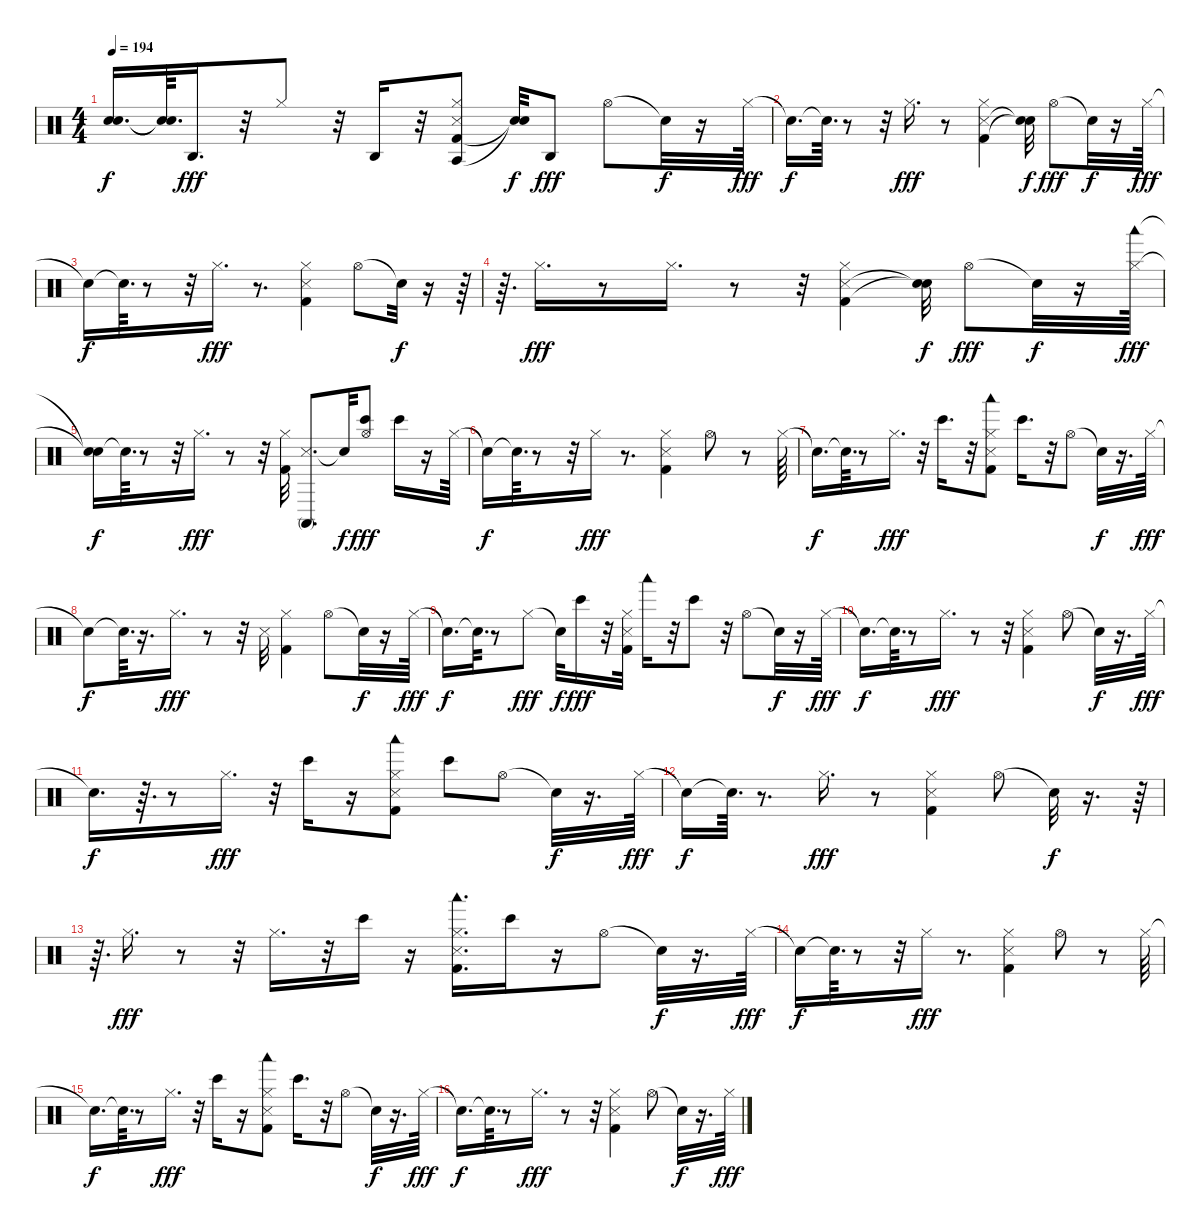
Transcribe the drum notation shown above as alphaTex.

\track "" {instrument percussion}
\staff {score}
\articulation defaults
\ts (4 4)
\tempo 194
\clef neutral
\ks c
("Snare (hit)"{t} "Snare (hit)"{t}).16{d dy f} ("Snare (hit)"{t} "Snare (hit)"{t}).64{d} "Agogo high (hit)".16{d dy fff} r.32 "Hi-Hat (closed)".8 r.32 "Agogo high (hit)".16 r.32 ("Kick (hit) 2" "Agogo tow (hit)" "Hi-Hat (closed)" "Snare (side stick) 3").8 ("Snare (hit)"{t} "Snare (hit)"{t}).32{dy f} "Agogo high (hit)".8{dy fff} "Hi-Hat (open)".8 "Snare (hit)"{t}.32{dy f} r.16 "Hi-Hat (closed)".64{dy fff} |
"Snare (hit)"{t}.16{d dy f} "Snare (hit)"{t}.64{d} r.8 r.32 "Hi-Hat (closed)".16{d dy fff} r.8 ("Kick (hit) 2" "Snare (side stick) 3" "Hi-Hat (closed)").4 ("Snare (hit)"{t} "Snare (hit)"{t}).32{dy f} "Hi-Hat (open)".8{dy fff} "Snare (hit)"{t}.32{dy f} r.16 "Hi-Hat (closed)".64{dy fff} |
"Snare (hit)"{t}.16{dy f} "Snare (hit)"{t}.64{d} r.8 r.32 "Hi-Hat (closed)".16{d dy fff} r.8{d} ("Kick (hit) 2" "Snare (side stick) 3" "Hi-Hat (closed)").4 "Hi-Hat (open)".8 "Snare (hit)"{t}.32{dy f} r.16 r.64 |
r.64{d} "Hi-Hat (closed)".16{d dy fff} r.8 "Hi-Hat (closed)".16{d} r.8 r.32 ("Kick (hit) 2" "Snare (side stick) 3" "Hi-Hat (closed)").4 ("Snare (hit)"{t} "Snare (hit)"{t}).32{dy f} "Hi-Hat (open)".8{dy fff} "Snare (hit)"{t}.32{dy f} r.16 ("Hi-Hat (closed)" "Woodblock low (hit)").64{dy fff} |
("Snare (hit)"{t} "Snare (hit)"{t}).16{dy f} "Snare (hit)"{t}.64{d} r.8 r.32 "Hi-Hat (closed)".16{d dy fff} r.8 r.32 ("Kick (hit) 2" "Hi-Hat (closed)").32 ("Snare (side stick) 3" "Conga high (mute)").8{d} "Snare (hit)"{t}.32{dy f} ("Hi-Hat (open)" "Bongo High (hit)").8{dy fff} "Bongo High (hit)".16 r.16 "Hi-Hat (closed)".64 |
"Snare (hit)"{t}.16{dy f} "Snare (hit)"{t}.64{d} r.8 r.32 "Hi-Hat (closed)".16{dy fff} r.8{d} ("Snare (side stick) 3" "Kick (hit) 2" "Hi-Hat (closed)").4 "Hi-Hat (open)".8 r.8 "Hi-Hat (closed)".64 |
"Snare (hit)"{t}.16{d dy f} "Snare (hit)"{t}.64{d} r.8 "Hi-Hat (closed)".16{d dy fff} r.32 "Bongo High (hit)".16{d} r.32 ("Snare (side stick) 3" "Kick (hit) 2" "Hi-Hat (closed)" "Woodblock low (hit)").8 "Bongo High (hit)".16{d} r.32 "Hi-Hat (open)".8 "Snare (hit)"{t}.32{dy f} r.16{d} "Hi-Hat (closed)".64{dy fff} |
"Snare (hit)"{t}.8{dy f} "Snare (hit)"{t}.64{d} r.16{d} "Hi-Hat (closed)".16{d dy fff} r.8 r.32 "Snare (side stick) 3".32 ("Kick (hit) 2" "Hi-Hat (closed)").4 "Hi-Hat (open)".8 "Snare (hit)"{t}.32{dy f} r.16 "Hi-Hat (closed)".64{dy fff} |
"Snare (hit)"{t}.16{d dy f} "Snare (hit)"{t}.64{d} r.8 "Hi-Hat (closed)".8{dy fff} "Snare (hit)"{t}.32{dy f} "Bongo High (hit)".16{dy fff} r.32 ("Hi-Hat (closed)" "Snare (side stick) 3" "Kick (hit) 2").32 "Woodblock low (hit)".16 r.32 "Bongo High (hit)".8 r.32 "Hi-Hat (open)".8 "Snare (hit)"{t}.32{dy f} r.16 "Hi-Hat (closed)".64{dy fff} |
"Snare (hit)"{t}.16{d dy f} "Snare (hit)"{t}.64{d} r.8 "Hi-Hat (closed)".16{d dy fff} r.8 r.32 ("Snare (side stick) 3" "Kick (hit) 2" "Hi-Hat (closed)").4 "Hi-Hat (open)".8 "Snare (hit)"{t}.32{dy f} r.16{d} "Hi-Hat (closed)".64{dy fff} |
"Snare (hit)"{t}.16{d dy f} r.64{d} r.8 "Hi-Hat (closed)".16{d dy fff} r.32 "Bongo High (hit)".16 r.16 ("Snare (side stick) 3" "Kick (hit) 2" "Hi-Hat (closed)" "Woodblock low (hit)").8 "Bongo High (hit)".8 "Hi-Hat (open)".8 "Snare (hit)"{t}.32{dy f} r.16{d} "Hi-Hat (closed)".64{dy fff} |
"Snare (hit)"{t}.16{dy f} "Snare (hit)"{t}.64{d} r.8{d} "Hi-Hat (closed)".16{d dy fff} r.8 ("Kick (hit) 2" "Snare (side stick) 3" "Hi-Hat (closed)").4 "Hi-Hat (open)".8 "Snare (hit)"{t}.32{dy f} r.16{d} r.64 |
r.64{d} "Hi-Hat (closed)".16{d dy fff} r.8 r.32 "Hi-Hat (closed)".16{d} r.32 "Bongo High (hit)".16 r.16 ("Kick (hit) 2" "Hi-Hat (closed)" "Snare (side stick) 3" "Woodblock low (hit)").16{d} "Bongo High (hit)".16 r.16 "Hi-Hat (open)".8 "Snare (hit)"{t}.32{dy f} r.16{d} "Hi-Hat (closed)".64{dy fff} |
"Snare (hit)"{t}.16{dy f} "Snare (hit)"{t}.64{d} r.8 r.32 "Hi-Hat (closed)".16{dy fff} r.8{d} ("Kick (hit) 2" "Snare (side stick) 3" "Hi-Hat (closed)").4 "Hi-Hat (open)".8 r.8 "Hi-Hat (closed)".64 |
"Snare (hit)"{t}.16{d dy f} "Snare (hit)"{t}.64{d} r.8 "Hi-Hat (closed)".16{d dy fff} r.32 "Bongo High (hit)".16 r.16 ("Woodblock low (hit)" "Kick (hit) 2" "Snare (side stick) 3" "Hi-Hat (closed)").8 "Bongo High (hit)".16{d} r.32 "Hi-Hat (open)".8 "Snare (hit)"{t}.32{dy f} r.16{d} "Hi-Hat (closed)".64{dy fff} |
"Snare (hit)"{t}.16{d dy f} "Snare (hit)"{t}.64{d} r.8 "Hi-Hat (closed)".16{d dy fff} r.8 r.32 ("Kick (hit) 2" "Snare (side stick) 3" "Hi-Hat (closed)").4 "Hi-Hat (open)".8 "Snare (hit)"{t}.32{dy f} r.16{d} "Hi-Hat (closed)".64{dy fff}
